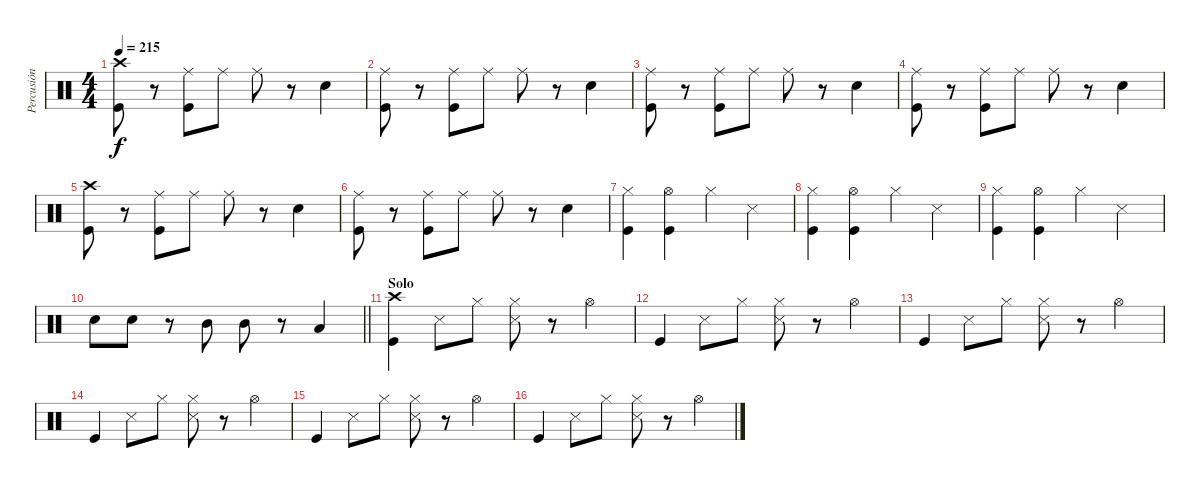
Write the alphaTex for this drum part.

\track ("Percusión" "Percusión") {instrument percussion}
\staff {score}
\articulation defaults
\ts (4 4)
\tempo 215
\clef neutral
\ks c
("Crash high (hit)" "Kick (hit)").8{dy f} r.8 ("Ride (middle)" "Kick (hit)").8 "Ride (middle)".8 "Ride (middle)".8 r.8 "Snare (hit) 2".4 |
("Ride (middle)" "Kick (hit)").8 r.8 ("Ride (middle)" "Kick (hit)").8 "Ride (middle)".8 "Ride (middle)".8 r.8 "Snare (hit) 2".4 |
("Ride (middle)" "Kick (hit)").8 r.8 ("Ride (middle)" "Kick (hit)").8 "Ride (middle)".8 "Ride (middle)".8 r.8 "Snare (hit) 2".4 |
("Ride (middle)" "Kick (hit)").8 r.8 ("Ride (middle)" "Kick (hit)").8 "Ride (middle)".8 "Ride (middle)".8 r.8 "Snare (hit) 2".4 |
("Crash high (hit)" "Kick (hit)").8 r.8 ("Ride (middle)" "Kick (hit)").8 "Ride (middle)".8 "Ride (middle)".8 r.8 "Snare (hit) 2".4 |
("Ride (middle)" "Kick (hit)").8 r.8 ("Ride (middle)" "Kick (hit)").8 "Ride (middle)".8 "Ride (middle)".8 r.8 "Snare (hit) 2".4 |
("Hi-Hat (closed)" "Kick (hit)").4 ("Hi-Hat (open)" "Kick (hit)").4 "Hi-Hat (closed)".4 "Snare (side stick) 3".4 |
("Hi-Hat (closed)" "Kick (hit)").4 ("Hi-Hat (open)" "Kick (hit)").4 "Hi-Hat (closed)".4 "Snare (side stick) 3".4 |
("Hi-Hat (closed)" "Kick (hit)").4 ("Hi-Hat (open)" "Kick (hit)").4 "Hi-Hat (closed)".4 "Snare (side stick) 3".4 |
\barLineRight lightlight "Snare (hit) 2".8 "Snare (hit) 2".8
r.8 "Mid Tom (hit)".8 "Mid Tom (hit)".8 r.8 "Low Tom (hit)".4 |
\section ("" "Solo")
("Crash high (hit)" "Kick (hit)").4 "Snare (side stick) 3".8 "Hi-Hat (closed)".8 ("Hi-Hat (closed)" "Snare (side stick) 3").8 r.8 "Hi-Hat (open)".4 |
"Kick (hit)".4 "Snare (side stick) 3".8 "Hi-Hat (closed)".8 ("Hi-Hat (closed)" "Snare (side stick) 3").8 r.8 "Hi-Hat (open)".4 |
"Kick (hit)".4 "Snare (side stick) 3".8 "Hi-Hat (closed)".8 ("Hi-Hat (closed)" "Snare (side stick) 3").8 r.8 "Hi-Hat (open)".4 |
"Kick (hit)".4 "Snare (side stick) 3".8 "Hi-Hat (closed)".8 ("Hi-Hat (closed)" "Snare (side stick) 3").8 r.8 "Hi-Hat (open)".4 |
"Kick (hit)".4 "Snare (side stick) 3".8 "Hi-Hat (closed)".8 ("Hi-Hat (closed)" "Snare (side stick) 3").8 r.8 "Hi-Hat (open)".4 |
"Kick (hit)".4 "Snare (side stick) 3".8 "Hi-Hat (closed)".8 ("Hi-Hat (closed)" "Snare (side stick) 3").8 r.8 "Hi-Hat (open)".4
